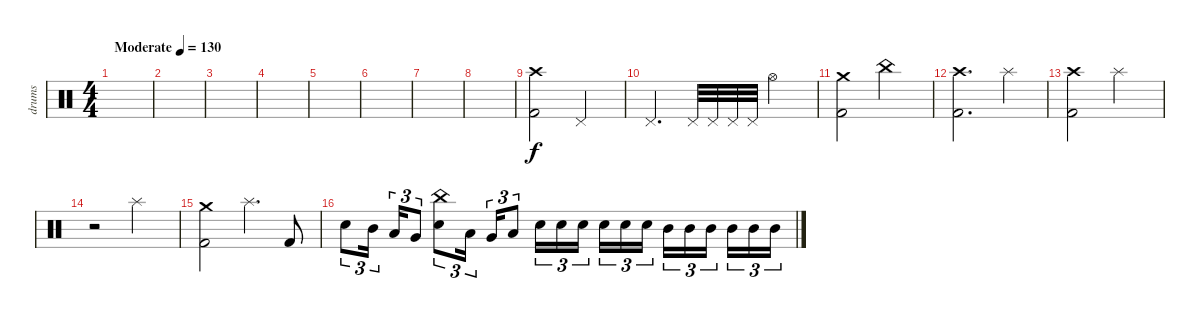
\track ("drums" "drums") {instrument percussion}
\staff {score}
\articulation defaults
\ts (4 4)
\tempo (130 "Moderate")
\clef neutral
\ks c
|
|
|
|
|
|
|
|
("Crash high (hit)" "Kick (hit) 2").2 "Pedal Hi-Hat (hit)".2 |
"Pedal Hi-Hat (hit)".4{d} "Pedal Hi-Hat (hit)".32 "Pedal Hi-Hat (hit)".32 "Pedal Hi-Hat (hit)".32 "Pedal Hi-Hat (hit)".32 "Hi-Hat (open)".2 |
("Crash medium (hit)" "Kick (hit) 2").2 "China (hit)".2 |
("Crash high (hit)" "Kick (hit) 2").2{d} "Splash (hit)".4 |
("Crash high (hit)" "Kick (hit) 2").2 "Splash (hit)".2 |
r.2 "Splash (hit)".2 |
("Crash medium (hit)" "Kick (hit) 2").2 "Splash (hit)".4{d} "Kick (hit) 2".8 |
"Snare (hit) 2".8{tu (3 2)} "Mid Tom (hit)".16{tu (3 2) beam splitsecondary} "Low Tom (hit)".16{tu (3 2)} "Very Low Tom (hit)".8{tu (3 2)} ("China (hit)" "Snare (hit) 2").8{tu (3 2)} "Low Tom (hit)".16{tu (3 2) beam splitsecondary} "Very Low Tom (hit)".16{tu (3 2)} "Low Floor Tom (hit)".8{tu (3 2)} "Snare (hit) 2".16{tu (3 2)} "Snare (hit) 2".16{tu (3 2)} "Snare (hit) 2".16{tu (3 2) beam splitsecondary} "Snare (hit) 2".16{tu (3 2)} "Snare (hit) 2".16{tu (3 2)} "Snare (hit) 2".16{tu (3 2)} "Mid Tom (hit)".16{tu (3 2)} "Mid Tom (hit)".16{tu (3 2)} "Mid Tom (hit)".16{tu (3 2) beam splitsecondary} "Mid Tom (hit)".16{tu (3 2)} "Mid Tom (hit)".16{tu (3 2)} "Mid Tom (hit)".16{tu (3 2)}
